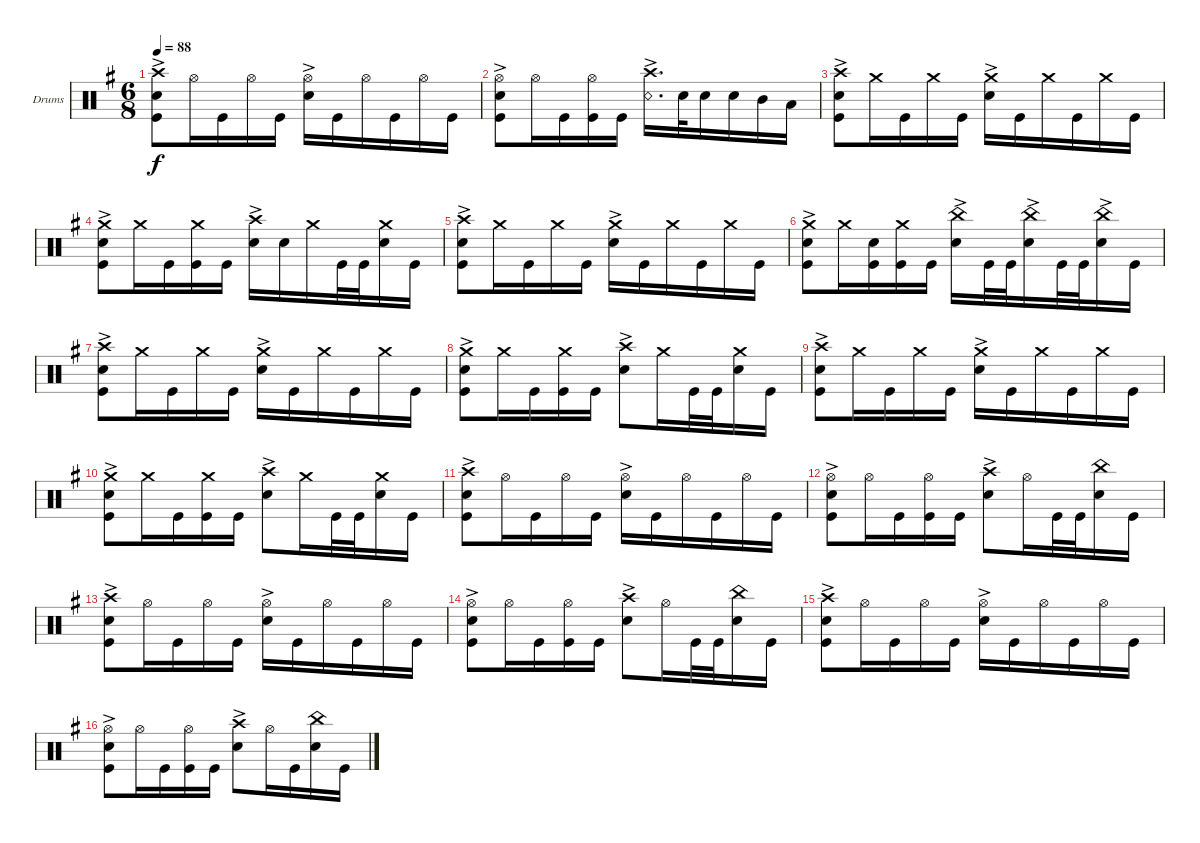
\bracketExtendMode groupsimilarinstruments
\firstSystemTrackNameOrientation horizontal
\otherSystemsTrackNameOrientation horizontal
\track ("Drumkit" "Drums") {instrument percussion}
\staff {score}
\articulation defaults
\ts (6 8)
\tempo 88
\clef neutral
\ks eminor
("Crash high (hit)" "Kick (hit)" "Snare (hit) 2"{ac}).8{dy f} "Hi-Hat (open)".16 "Kick (hit)".16 "Hi-Hat (open)".16 "Kick (hit)".16 ("Snare (hit) 2"{ac} "Hi-Hat (open)").16 "Kick (hit)".16 "Hi-Hat (open)".16 "Kick (hit)".16 "Hi-Hat (open)".16 "Kick (hit)".16 |
("Kick (hit)" "Hi-Hat (open)" "Snare (hit) 2"{ac}).8 "Hi-Hat (open)".16 "Kick (hit)".16 ("Kick (hit)" "Hi-Hat (open)").16 "Kick (hit)".16 ("Crash high (hit)" "Snare (rim shot)"{ac}).16{d} "Snare (hit) 2".32 "Snare (hit) 2".16 "Snare (hit) 2".16 "Mid Tom (hit)".16 "Low Tom (hit)".16 |
("Crash high (hit)" "Kick (hit)" "Snare (hit) 2"{ac}).8 "Crash medium (hit)".16 "Kick (hit)".16 "Crash medium (hit)".16 "Kick (hit)".16 ("Snare (hit) 2"{ac} "Crash medium (hit)").16 "Kick (hit)".16 "Crash medium (hit)".16 "Kick (hit)".16 "Crash medium (hit)".16 "Kick (hit)".16 |
("Kick (hit)" "Crash medium (hit)" "Snare (hit) 2"{ac}).8 "Crash medium (hit)".16 "Kick (hit)".16 ("Kick (hit)" "Crash medium (hit)").16 "Kick (hit)".16 ("Crash high (hit)" "Snare (hit) 2"{ac}).16 "Snare (hit) 2".16 "Crash medium (hit)".16 "Kick (hit)".32 "Kick (hit)".32 ("Snare (hit) 2" "Crash medium (hit)").16 "Kick (hit)".16 |
("Crash high (hit)" "Kick (hit)" "Snare (hit) 2"{ac}).8 "Crash medium (hit)".16 "Kick (hit)".16 "Crash medium (hit)".16 "Kick (hit)".16 ("Snare (hit) 2"{ac} "Crash medium (hit)").16 "Kick (hit)".16 "Crash medium (hit)".16 "Kick (hit)".16 "Crash medium (hit)".16 "Kick (hit)".16 |
("Kick (hit)" "Crash medium (hit)" "Snare (hit) 2"{ac}).8 "Crash medium (hit)".16 ("Kick (hit)" "Snare (hit) 2").16 ("Kick (hit)" "Crash medium (hit)").16 "Kick (hit)".16 ("Snare (hit) 2"{ac} "China (hit)").16 "Kick (hit)".32 "Kick (hit)".32 ("Snare (hit) 2"{ac} "China (hit)").16 "Kick (hit)".32 "Kick (hit)".32 ("Snare (hit) 2"{ac} "China (hit)").16 "Kick (hit)".16 |
("Crash high (hit)" "Kick (hit)" "Snare (hit) 2"{ac}).8 "Crash medium (hit)".16 "Kick (hit)".16 "Crash medium (hit)".16 "Kick (hit)".16 ("Snare (hit) 2"{ac} "Crash medium (hit)").16 "Kick (hit)".16 "Crash medium (hit)".16 "Kick (hit)".16 "Crash medium (hit)".16 "Kick (hit)".16 |
("Kick (hit)" "Crash medium (hit)" "Snare (hit) 2"{ac}).8 "Crash medium (hit)".16 "Kick (hit)".16 ("Kick (hit)" "Crash medium (hit)").16 "Kick (hit)".16 ("Crash high (hit)" "Snare (hit) 2"{ac}).8 "Crash medium (hit)".16 "Kick (hit)".32 "Kick (hit)".32 ("Snare (hit) 2" "Crash medium (hit)").16 "Kick (hit)".16 |
("Crash high (hit)" "Kick (hit)" "Snare (hit) 2"{ac}).8 "Crash medium (hit)".16 "Kick (hit)".16 "Crash medium (hit)".16 "Kick (hit)".16 ("Snare (hit) 2"{ac} "Crash medium (hit)").16 "Kick (hit)".16 "Crash medium (hit)".16 "Kick (hit)".16 "Crash medium (hit)".16 "Kick (hit)".16 |
("Kick (hit)" "Crash medium (hit)" "Snare (hit) 2"{ac}).8 "Crash medium (hit)".16 "Kick (hit)".16 ("Kick (hit)" "Crash medium (hit)").16 "Kick (hit)".16 ("Crash high (hit)" "Snare (hit) 2"{ac}).8 "Crash medium (hit)".16 "Kick (hit)".32 "Kick (hit)".32 ("Snare (hit) 2" "Crash medium (hit)").16 "Kick (hit)".16 |
("Crash high (hit)" "Kick (hit)" "Snare (hit) 2"{ac}).8 "Hi-Hat (open)".16 "Kick (hit)".16 "Hi-Hat (open)".16 "Kick (hit)".16 ("Snare (hit) 2"{ac} "Hi-Hat (open)").16 "Kick (hit)".16 "Hi-Hat (open)".16 "Kick (hit)".16 "Hi-Hat (open)".16 "Kick (hit)".16 |
("Kick (hit)" "Hi-Hat (open)" "Snare (hit) 2"{ac}).8 "Hi-Hat (open)".16 "Kick (hit)".16 ("Kick (hit)" "Hi-Hat (open)").16 "Kick (hit)".16 ("Crash high (hit)" "Snare (hit) 2"{ac}).8 "Hi-Hat (open)".16 "Kick (hit)".32 "Kick (hit)".32 ("Snare (hit) 2" "China (hit)").16 "Kick (hit)".16 |
("Crash high (hit)" "Kick (hit)" "Snare (hit) 2"{ac}).8 "Hi-Hat (open)".16 "Kick (hit)".16 "Hi-Hat (open)".16 "Kick (hit)".16 ("Snare (hit) 2"{ac} "Hi-Hat (open)").16 "Kick (hit)".16 "Hi-Hat (open)".16 "Kick (hit)".16 "Hi-Hat (open)".16 "Kick (hit)".16 |
("Kick (hit)" "Hi-Hat (open)" "Snare (hit) 2"{ac}).8 "Hi-Hat (open)".16 "Kick (hit)".16 ("Kick (hit)" "Hi-Hat (open)").16 "Kick (hit)".16 ("Crash high (hit)" "Snare (hit) 2"{ac}).8 "Hi-Hat (open)".16 "Kick (hit)".32 "Kick (hit)".32 ("Snare (hit) 2" "China (hit)").16 "Kick (hit)".16 |
("Crash high (hit)" "Kick (hit)" "Snare (hit) 2"{ac}).8 "Hi-Hat (open)".16 "Kick (hit)".16 "Hi-Hat (open)".16 "Kick (hit)".16 ("Snare (hit) 2"{ac} "Hi-Hat (open)").16 "Kick (hit)".16 "Hi-Hat (open)".16 "Kick (hit)".16 "Hi-Hat (open)".16 "Kick (hit)".16 |
("Kick (hit)" "Hi-Hat (open)" "Snare (hit) 2"{ac}).8 "Hi-Hat (open)".16 "Kick (hit)".16 ("Kick (hit)" "Hi-Hat (open)").16 "Kick (hit)".16 ("Crash high (hit)" "Snare (hit) 2"{ac}).8 "Hi-Hat (open)".16 "Kick (hit)".16 ("Snare (hit) 2" "China (hit)").16 "Kick (hit)".16
